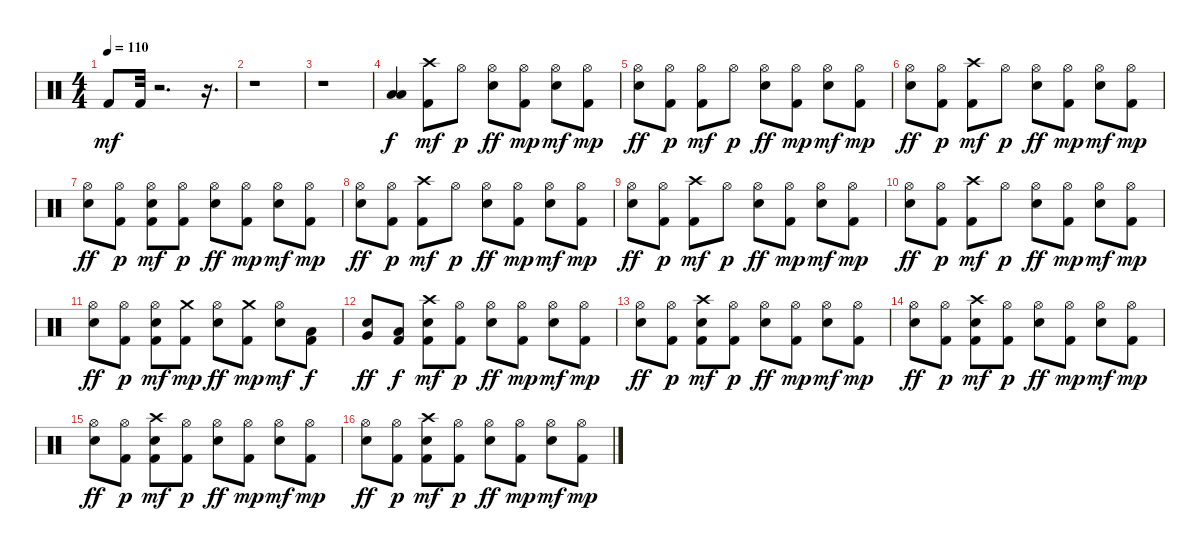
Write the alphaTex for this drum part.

\track "" {instrument percussion}
\staff {score}
\articulation defaults
\ts (4 4)
\tempo 110
\clef neutral
\ks c "Kick (hit) 2".8{dy mf} "Kick (hit) 2".32
r.2{d} r.16{d} |
r.1 |
r.1 |
("Low Floor Tom (hit)" "Low Tom (hit)").4{dy f} ("Kick (hit) 2" "Crash high (hit)").8{dy mf} "Hi-Hat (open)".8{dy p} ("Electric Snare (hit)" "Hi-Hat (open)").8{dy ff} ("Kick (hit) 2" "Hi-Hat (open)").8{dy mp} ("Electric Snare (hit)" "Hi-Hat (open)").8{dy mf} ("Kick (hit) 2" "Hi-Hat (open)").8{dy mp} |
("Electric Snare (hit)" "Hi-Hat (open)").8{dy ff} ("Kick (hit) 2" "Hi-Hat (open)").8{dy p} ("Kick (hit) 2" "Hi-Hat (open)").8{dy mf} "Hi-Hat (open)".8{dy p} ("Electric Snare (hit)" "Hi-Hat (open)").8{dy ff} ("Kick (hit) 2" "Hi-Hat (open)").8{dy mp} ("Electric Snare (hit)" "Hi-Hat (open)").8{dy mf} ("Kick (hit) 2" "Hi-Hat (open)").8{dy mp} |
("Electric Snare (hit)" "Hi-Hat (open)").8{dy ff} ("Kick (hit) 2" "Hi-Hat (open)").8{dy p} ("Kick (hit) 2" "Crash high (hit)").8{dy mf} "Hi-Hat (open)".8{dy p} ("Electric Snare (hit)" "Hi-Hat (open)").8{dy ff} ("Kick (hit) 2" "Hi-Hat (open)").8{dy mp} ("Electric Snare (hit)" "Hi-Hat (open)").8{dy mf} ("Kick (hit) 2" "Hi-Hat (open)").8{dy mp} |
("Electric Snare (hit)" "Hi-Hat (open)").8{dy ff} ("Kick (hit) 2" "Hi-Hat (open)").8{dy p} ("Kick (hit) 2" "Electric Snare (hit)" "Hi-Hat (open)").8{dy mf} ("Kick (hit) 2" "Hi-Hat (open)").8{dy p} ("Electric Snare (hit)" "Hi-Hat (open)").8{dy ff} ("Kick (hit) 2" "Hi-Hat (open)").8{dy mp} ("Electric Snare (hit)" "Hi-Hat (open)").8{dy mf} ("Kick (hit) 2" "Hi-Hat (open)").8{dy mp} |
("Electric Snare (hit)" "Hi-Hat (open)").8{dy ff} ("Kick (hit) 2" "Hi-Hat (open)").8{dy p} ("Kick (hit) 2" "Crash high (hit)").8{dy mf} "Hi-Hat (open)".8{dy p} ("Electric Snare (hit)" "Hi-Hat (open)").8{dy ff} ("Kick (hit) 2" "Hi-Hat (open)").8{dy mp} ("Electric Snare (hit)" "Hi-Hat (open)").8{dy mf} ("Kick (hit) 2" "Hi-Hat (open)").8{dy mp} |
("Electric Snare (hit)" "Hi-Hat (open)").8{dy ff} ("Kick (hit) 2" "Hi-Hat (open)").8{dy p} ("Kick (hit) 2" "Crash high (hit)").8{dy mf} "Hi-Hat (open)".8{dy p} ("Electric Snare (hit)" "Hi-Hat (open)").8{dy ff} ("Kick (hit) 2" "Hi-Hat (open)").8{dy mp} ("Electric Snare (hit)" "Hi-Hat (open)").8{dy mf} ("Kick (hit) 2" "Hi-Hat (open)").8{dy mp} |
("Electric Snare (hit)" "Hi-Hat (open)").8{dy ff} ("Kick (hit) 2" "Hi-Hat (open)").8{dy p} ("Kick (hit) 2" "Crash high (hit)").8{dy mf} "Hi-Hat (open)".8{dy p} ("Electric Snare (hit)" "Hi-Hat (open)").8{dy ff} ("Kick (hit) 2" "Hi-Hat (open)").8{dy mp} ("Electric Snare (hit)" "Hi-Hat (open)").8{dy mf} ("Kick (hit) 2" "Hi-Hat (open)").8{dy mp} |
("Electric Snare (hit)" "Hi-Hat (open)").8{dy ff} ("Kick (hit) 2" "Hi-Hat (open)").8{dy p} ("Kick (hit) 2" "Electric Snare (hit)" "Hi-Hat (open)").8{dy mf} ("Kick (hit) 2" "Crash medium (hit)").8{dy mp} ("Electric Snare (hit)" "Hi-Hat (open)").8{dy ff} ("Kick (hit) 2" "Crash medium (hit)").8{dy mp} ("Electric Snare (hit)" "Hi-Hat (open)").8{dy mf} ("Kick (hit) 2" "Low Tom (hit)").8{dy f} |
("Electric Snare (hit)" "Very Low Tom (hit)").8{dy ff} ("Kick (hit) 2" "Low Floor Tom (hit)").8{dy f} ("Kick (hit) 2" "Electric Snare (hit)" "Crash high (hit)").8{dy mf} ("Kick (hit) 2" "Hi-Hat (open)").8{dy p} ("Electric Snare (hit)" "Hi-Hat (open)").8{dy ff} ("Kick (hit) 2" "Hi-Hat (open)").8{dy mp} ("Electric Snare (hit)" "Hi-Hat (open)").8{dy mf} ("Kick (hit) 2" "Hi-Hat (open)").8{dy mp} |
("Electric Snare (hit)" "Hi-Hat (open)").8{dy ff} ("Kick (hit) 2" "Hi-Hat (open)").8{dy p} ("Kick (hit) 2" "Electric Snare (hit)" "Crash high (hit)").8{dy mf} ("Kick (hit) 2" "Hi-Hat (open)").8{dy p} ("Electric Snare (hit)" "Hi-Hat (open)").8{dy ff} ("Kick (hit) 2" "Hi-Hat (open)").8{dy mp} ("Electric Snare (hit)" "Hi-Hat (open)").8{dy mf} ("Kick (hit) 2" "Hi-Hat (open)").8{dy mp} |
("Electric Snare (hit)" "Hi-Hat (open)").8{dy ff} ("Kick (hit) 2" "Hi-Hat (open)").8{dy p} ("Kick (hit) 2" "Electric Snare (hit)" "Crash high (hit)").8{dy mf} ("Kick (hit) 2" "Hi-Hat (open)").8{dy p} ("Electric Snare (hit)" "Hi-Hat (open)").8{dy ff} ("Kick (hit) 2" "Hi-Hat (open)").8{dy mp} ("Electric Snare (hit)" "Hi-Hat (open)").8{dy mf} ("Kick (hit) 2" "Hi-Hat (open)").8{dy mp} |
("Electric Snare (hit)" "Hi-Hat (open)").8{dy ff} ("Kick (hit) 2" "Hi-Hat (open)").8{dy p} ("Kick (hit) 2" "Electric Snare (hit)" "Crash high (hit)").8{dy mf} ("Kick (hit) 2" "Hi-Hat (open)").8{dy p} ("Electric Snare (hit)" "Hi-Hat (open)").8{dy ff} ("Kick (hit) 2" "Hi-Hat (open)").8{dy mp} ("Electric Snare (hit)" "Hi-Hat (open)").8{dy mf} ("Kick (hit) 2" "Hi-Hat (open)").8{dy mp} |
("Electric Snare (hit)" "Hi-Hat (open)").8{dy ff} ("Kick (hit) 2" "Hi-Hat (open)").8{dy p} ("Kick (hit) 2" "Electric Snare (hit)" "Crash high (hit)").8{dy mf} ("Kick (hit) 2" "Hi-Hat (open)").8{dy p} ("Electric Snare (hit)" "Hi-Hat (open)").8{dy ff} ("Kick (hit) 2" "Hi-Hat (open)").8{dy mp} ("Electric Snare (hit)" "Hi-Hat (open)").8{dy mf} ("Kick (hit) 2" "Hi-Hat (open)").8{dy mp}
